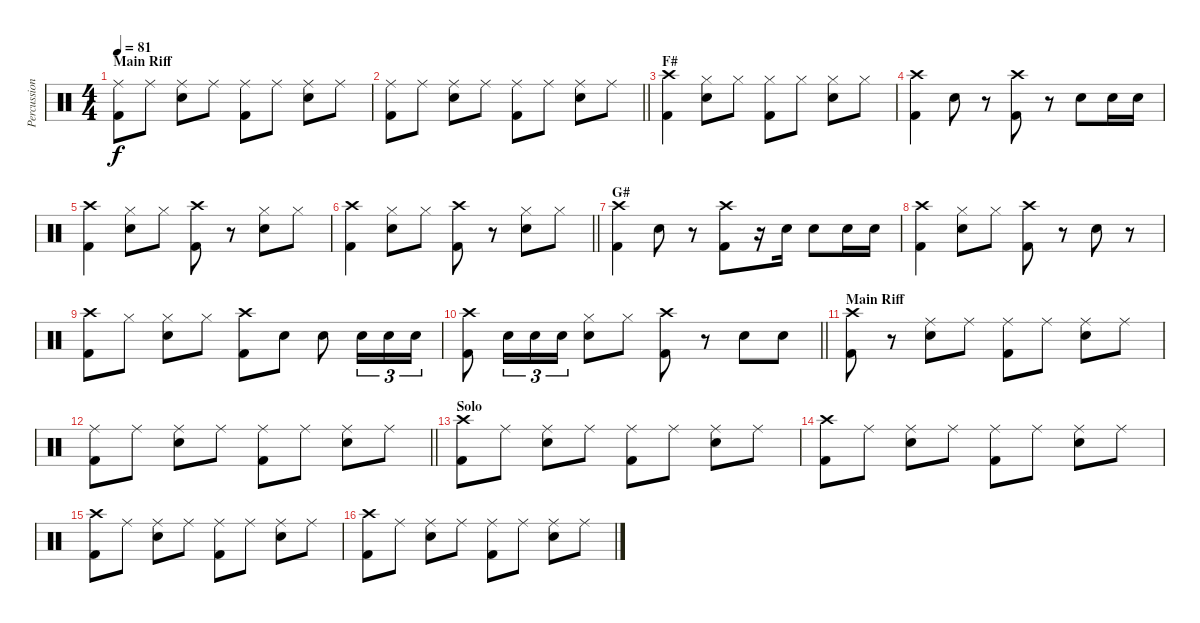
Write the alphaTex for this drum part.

\track ("Percussion" "Percussion") {instrument percussion}
\staff {score}
\articulation defaults
\ts (4 4)
\section ("" "Main Riff")
\tempo 81
\clef neutral
\ks c
("Ride (middle)" "Kick (hit) 2").8{dy f} "Ride (middle)".8 ("Ride (middle)" "Snare (hit) 2").8 "Ride (middle)".8 ("Ride (middle)" "Kick (hit) 2").8 "Ride (middle)".8 ("Ride (middle)" "Snare (hit) 2").8 "Ride (middle)".8 |
\barLineRight lightlight
("Ride (middle)" "Kick (hit) 2").8 "Ride (middle)".8 ("Ride (middle)" "Snare (hit) 2").8 "Ride (middle)".8 ("Ride (middle)" "Kick (hit) 2").8 "Ride (middle)".8 ("Ride (middle)" "Snare (hit) 2").8 "Ride (middle)".8 |
\section ("" "F#")
("Crash high (hit)" "Kick (hit) 2").4 ("Hi-Hat (closed)" "Snare (hit) 2").8 "Hi-Hat (closed)".8 ("Hi-Hat (closed)" "Kick (hit) 2").8 "Hi-Hat (closed)".8 ("Hi-Hat (closed)" "Snare (hit) 2").8 "Hi-Hat (closed)".8 |
("Crash high (hit)" "Kick (hit) 2").4 "Snare (hit) 2".8 r.8 ("Crash high (hit)" "Kick (hit) 2").8 r.8 "Snare (hit) 2".8 "Snare (hit) 2".16 "Snare (hit) 2".16 |
("Crash high (hit)" "Kick (hit) 2").4 ("Hi-Hat (closed)" "Snare (hit) 2").8 "Hi-Hat (closed)".8 ("Crash high (hit)" "Kick (hit) 2").8 r.8 ("Hi-Hat (closed)" "Snare (hit) 2").8 "Hi-Hat (closed)".8 |
\barLineRight lightlight
("Crash high (hit)" "Kick (hit) 2").4 ("Hi-Hat (closed)" "Snare (hit) 2").8 "Hi-Hat (closed)".8 ("Crash high (hit)" "Kick (hit) 2").8 r.8 ("Hi-Hat (closed)" "Snare (hit) 2").8 "Hi-Hat (closed)".8 |
\section ("" "G#")
("Crash high (hit)" "Kick (hit) 2").4 "Snare (hit) 2".8 r.8 ("Crash high (hit)" "Kick (hit) 2").8 r.16 "Snare (hit) 2".16 "Snare (hit) 2".8 "Snare (hit) 2".16 "Snare (hit) 2".16 |
("Crash high (hit)" "Kick (hit) 2").4 ("Hi-Hat (closed)" "Snare (hit) 2").8 "Hi-Hat (closed)".8 ("Crash high (hit)" "Kick (hit) 2").8 r.8 "Snare (hit) 2".8 r.8 |
("Crash high (hit)" "Kick (hit) 2").8 "Hi-Hat (closed)".8 ("Hi-Hat (closed)" "Snare (hit) 2").8 "Hi-Hat (closed)".8 ("Crash high (hit)" "Kick (hit) 2").8 "Snare (hit) 2".8 "Snare (hit) 2".8 "Snare (hit) 2".16{tu (3 2)} "Snare (hit) 2".16{tu (3 2)} "Snare (hit) 2".16{tu (3 2)} |
\barLineRight lightlight
("Crash high (hit)" "Kick (hit) 2").8 "Snare (hit) 2".16{tu (3 2)} "Snare (hit) 2".16{tu (3 2)} "Snare (hit) 2".16{tu (3 2)} ("Hi-Hat (closed)" "Snare (hit) 2").8 "Hi-Hat (closed)".8 ("Crash high (hit)" "Kick (hit) 2").8 r.8 "Snare (hit) 2".8 "Snare (hit) 2".8 |
\section ("" "Main Riff")
("Crash high (hit)" "Kick (hit) 2").8 r.8 ("Ride (middle)" "Snare (hit) 2").8 "Ride (middle)".8 ("Ride (middle)" "Kick (hit) 2").8 "Ride (middle)".8 ("Ride (middle)" "Snare (hit) 2").8 "Ride (middle)".8 |
\barLineRight lightlight
("Ride (middle)" "Kick (hit) 2").8 "Ride (middle)".8 ("Ride (middle)" "Snare (hit) 2").8 "Ride (middle)".8 ("Ride (middle)" "Kick (hit) 2").8 "Ride (middle)".8 ("Ride (middle)" "Snare (hit) 2").8 "Ride (middle)".8 |
\section ("" "Solo")
("Crash high (hit)" "Kick (hit) 2").8 "Ride (middle)".8 ("Ride (middle)" "Snare (hit) 2").8 "Ride (middle)".8 ("Ride (middle)" "Kick (hit) 2").8 "Ride (middle)".8 ("Ride (middle)" "Snare (hit) 2").8 "Ride (middle)".8 |
("Crash high (hit)" "Kick (hit) 2").8 "Ride (middle)".8 ("Ride (middle)" "Snare (hit) 2").8 "Ride (middle)".8 ("Ride (middle)" "Kick (hit) 2").8 "Ride (middle)".8 ("Ride (middle)" "Snare (hit) 2").8 "Ride (middle)".8 |
("Crash high (hit)" "Kick (hit) 2").8 "Ride (middle)".8 ("Ride (middle)" "Snare (hit) 2").8 "Ride (middle)".8 ("Ride (middle)" "Kick (hit) 2").8 "Ride (middle)".8 ("Ride (middle)" "Snare (hit) 2").8 "Ride (middle)".8 |
("Crash high (hit)" "Kick (hit) 2").8 "Ride (middle)".8 ("Ride (middle)" "Snare (hit) 2").8 "Ride (middle)".8 ("Ride (middle)" "Kick (hit) 2").8 "Ride (middle)".8 ("Ride (middle)" "Snare (hit) 2").8 "Ride (middle)".8
